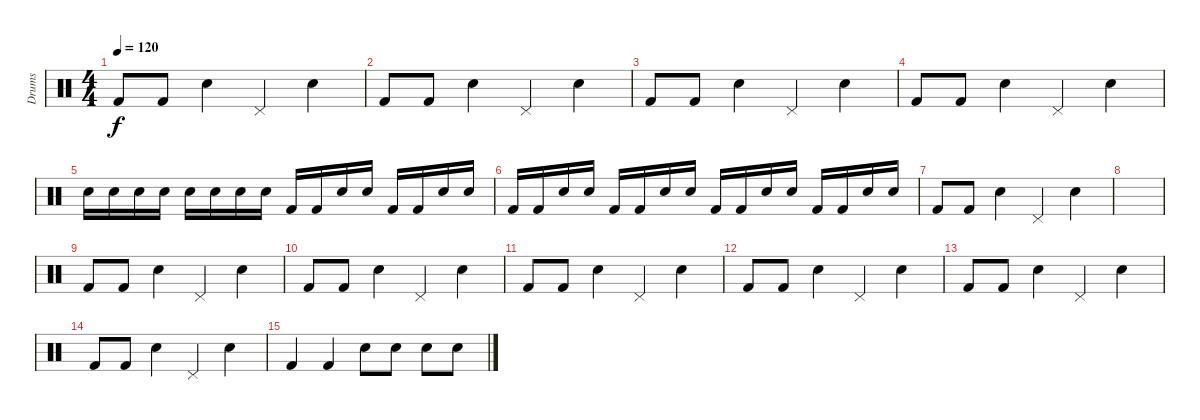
\track ("Drums" "Drums") {instrument percussion}
\staff {score}
\articulation defaults
\ts (4 4)
\tempo 120
\clef neutral
\ks c "Kick (hit) 2".8{dy f} "Kick (hit) 2".8 "Snare (hit) 2".4 "Pedal Hi-Hat (hit)".4 "Snare (hit) 2".4
|
"Kick (hit) 2".8 "Kick (hit) 2".8 "Snare (hit) 2".4 "Pedal Hi-Hat (hit)".4 "Snare (hit) 2".4 |
"Kick (hit) 2".8 "Kick (hit) 2".8 "Snare (hit) 2".4 "Pedal Hi-Hat (hit)".4 "Snare (hit) 2".4 |
"Kick (hit) 2".8 "Kick (hit) 2".8 "Snare (hit) 2".4 "Pedal Hi-Hat (hit)".4 "Snare (hit) 2".4 |
"Snare (hit) 2".16 "Snare (hit) 2".16 "Snare (hit) 2".16 "Snare (hit) 2".16 "Snare (hit) 2".16 "Snare (hit) 2".16 "Snare (hit) 2".16 "Snare (hit) 2".16 "Kick (hit) 2".16 "Kick (hit) 2".16 "Snare (hit) 2".16 "Snare (hit) 2".16 "Kick (hit) 2".16 "Kick (hit) 2".16 "Snare (hit) 2".16 "Snare (hit) 2".16 |
"Kick (hit) 2".16 "Kick (hit) 2".16 "Snare (hit) 2".16 "Snare (hit) 2".16 "Kick (hit) 2".16 "Kick (hit) 2".16 "Snare (hit) 2".16 "Snare (hit) 2".16 "Kick (hit) 2".16 "Kick (hit) 2".16 "Snare (hit) 2".16 "Snare (hit) 2".16 "Kick (hit) 2".16 "Kick (hit) 2".16 "Snare (hit) 2".16 "Snare (hit) 2".16 |
"Kick (hit) 2".8 "Kick (hit) 2".8 "Snare (hit) 2".4 "Pedal Hi-Hat (hit)".4 "Snare (hit) 2".4 |
|
"Kick (hit) 2".8 "Kick (hit) 2".8 "Snare (hit) 2".4 "Pedal Hi-Hat (hit)".4 "Snare (hit) 2".4 |
"Kick (hit) 2".8 "Kick (hit) 2".8 "Snare (hit) 2".4 "Pedal Hi-Hat (hit)".4 "Snare (hit) 2".4 |
"Kick (hit) 2".8 "Kick (hit) 2".8 "Snare (hit) 2".4 "Pedal Hi-Hat (hit)".4 "Snare (hit) 2".4 |
"Kick (hit) 2".8 "Kick (hit) 2".8 "Snare (hit) 2".4 "Pedal Hi-Hat (hit)".4 "Snare (hit) 2".4 |
"Kick (hit) 2".8 "Kick (hit) 2".8 "Snare (hit) 2".4 "Pedal Hi-Hat (hit)".4 "Snare (hit) 2".4 |
"Kick (hit) 2".8 "Kick (hit) 2".8 "Snare (hit) 2".4 "Pedal Hi-Hat (hit)".4 "Snare (hit) 2".4 |
"Kick (hit) 2".4 "Kick (hit) 2".4 "Snare (hit) 2".8 "Snare (hit) 2".8 "Snare (hit) 2".8 "Snare (hit) 2".8
